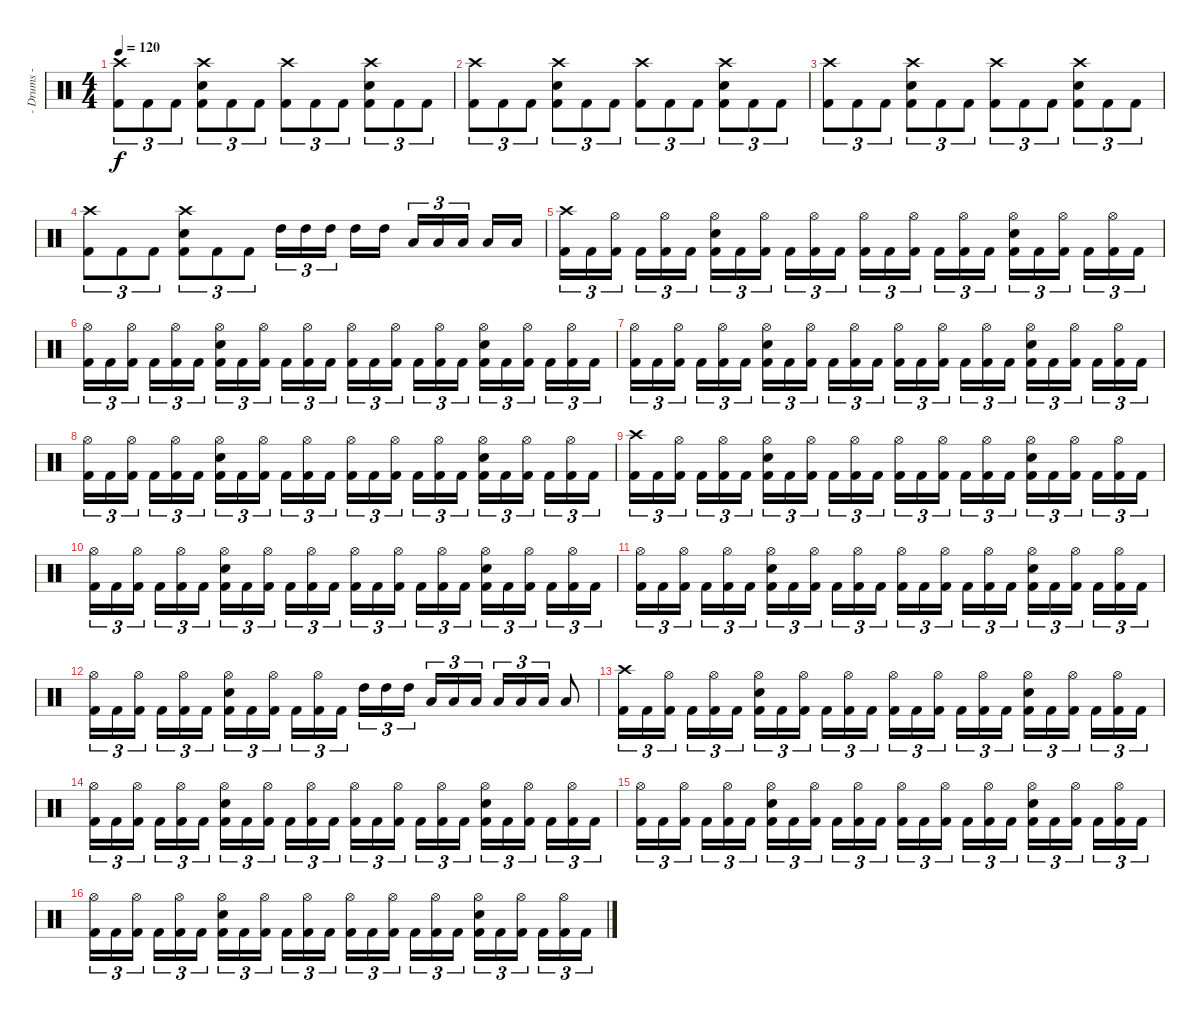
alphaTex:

\track ("- Drums -" "- Drums -") {instrument percussion}
\staff {score}
\articulation defaults
\ts (4 4)
\tempo 120
\clef neutral
\ks c
("Crash high (hit)" "Kick (hit) 2").8{tu (3 2) dy f} "Kick (hit) 2".8{tu (3 2)} "Kick (hit) 2".8{tu (3 2)} ("Crash high (hit)" "Electric Snare (hit)" "Kick (hit) 2").8{tu (3 2)} "Kick (hit) 2".8{tu (3 2)} "Kick (hit) 2".8{tu (3 2)} ("Crash high (hit)" "Kick (hit) 2").8{tu (3 2)} "Kick (hit) 2".8{tu (3 2)} "Kick (hit) 2".8{tu (3 2)} ("Crash high (hit)" "Electric Snare (hit)" "Kick (hit) 2").8{tu (3 2)} "Kick (hit) 2".8{tu (3 2)} "Kick (hit) 2".8{tu (3 2)} |
("Crash high (hit)" "Kick (hit) 2").8{tu (3 2)} "Kick (hit) 2".8{tu (3 2)} "Kick (hit) 2".8{tu (3 2)} ("Crash high (hit)" "Electric Snare (hit)" "Kick (hit) 2").8{tu (3 2)} "Kick (hit) 2".8{tu (3 2)} "Kick (hit) 2".8{tu (3 2)} ("Crash high (hit)" "Kick (hit) 2").8{tu (3 2)} "Kick (hit) 2".8{tu (3 2)} "Kick (hit) 2".8{tu (3 2)} ("Crash high (hit)" "Electric Snare (hit)" "Kick (hit) 2").8{tu (3 2)} "Kick (hit) 2".8{tu (3 2)} "Kick (hit) 2".8{tu (3 2)} |
("Crash high (hit)" "Kick (hit) 2").8{tu (3 2)} "Kick (hit) 2".8{tu (3 2)} "Kick (hit) 2".8{tu (3 2)} ("Crash high (hit)" "Electric Snare (hit)" "Kick (hit) 2").8{tu (3 2)} "Kick (hit) 2".8{tu (3 2)} "Kick (hit) 2".8{tu (3 2)} ("Crash high (hit)" "Kick (hit) 2").8{tu (3 2)} "Kick (hit) 2".8{tu (3 2)} "Kick (hit) 2".8{tu (3 2)} ("Crash high (hit)" "Electric Snare (hit)" "Kick (hit) 2").8{tu (3 2)} "Kick (hit) 2".8{tu (3 2)} "Kick (hit) 2".8{tu (3 2)} |
("Crash high (hit)" "Kick (hit) 2").8{tu (3 2)} "Kick (hit) 2".8{tu (3 2)} "Kick (hit) 2".8{tu (3 2)} ("Crash high (hit)" "Electric Snare (hit)" "Kick (hit) 2").8{tu (3 2)} "Kick (hit) 2".8{tu (3 2)} "Kick (hit) 2".8{tu (3 2)} "High Tom (hit)".16{tu (3 2)} "High Tom (hit)".16{tu (3 2)} "High Tom (hit)".16{tu (3 2)} "High Tom (hit)".16 "High Tom (hit)".16 "Low Tom (hit)".16{tu (3 2)} "Low Tom (hit)".16{tu (3 2)} "Low Tom (hit)".16{tu (3 2)} "Low Tom (hit)".16 "Low Tom (hit)".16 |
("Crash high (hit)" "Kick (hit) 2").16{tu (3 2)} "Kick (hit) 2".16{tu (3 2)} ("Hi-Hat (open)" "Kick (hit) 2").16{tu (3 2)} "Kick (hit) 2".16{tu (3 2)} ("Hi-Hat (open)" "Kick (hit) 2").16{tu (3 2)} "Kick (hit) 2".16{tu (3 2)} ("Hi-Hat (open)" "Electric Snare (hit)" "Kick (hit) 2").16{tu (3 2)} "Kick (hit) 2".16{tu (3 2)} ("Hi-Hat (open)" "Kick (hit) 2").16{tu (3 2)} "Kick (hit) 2".16{tu (3 2)} ("Hi-Hat (open)" "Kick (hit) 2").16{tu (3 2)} "Kick (hit) 2".16{tu (3 2)} ("Hi-Hat (open)" "Kick (hit) 2").16{tu (3 2)} "Kick (hit) 2".16{tu (3 2)} ("Hi-Hat (open)" "Kick (hit) 2").16{tu (3 2)} "Kick (hit) 2".16{tu (3 2)} ("Hi-Hat (open)" "Kick (hit) 2").16{tu (3 2)} "Kick (hit) 2".16{tu (3 2)} ("Hi-Hat (open)" "Electric Snare (hit)" "Kick (hit) 2").16{tu (3 2)} "Kick (hit) 2".16{tu (3 2)} ("Hi-Hat (open)" "Kick (hit) 2").16{tu (3 2)} "Kick (hit) 2".16{tu (3 2)} ("Hi-Hat (open)" "Kick (hit) 2").16{tu (3 2)} "Kick (hit) 2".16{tu (3 2)} |
("Hi-Hat (open)" "Kick (hit) 2").16{tu (3 2)} "Kick (hit) 2".16{tu (3 2)} ("Hi-Hat (open)" "Kick (hit) 2").16{tu (3 2)} "Kick (hit) 2".16{tu (3 2)} ("Hi-Hat (open)" "Kick (hit) 2").16{tu (3 2)} "Kick (hit) 2".16{tu (3 2)} ("Hi-Hat (open)" "Electric Snare (hit)" "Kick (hit) 2").16{tu (3 2)} "Kick (hit) 2".16{tu (3 2)} ("Hi-Hat (open)" "Kick (hit) 2").16{tu (3 2)} "Kick (hit) 2".16{tu (3 2)} ("Hi-Hat (open)" "Kick (hit) 2").16{tu (3 2)} "Kick (hit) 2".16{tu (3 2)} ("Hi-Hat (open)" "Kick (hit) 2").16{tu (3 2)} "Kick (hit) 2".16{tu (3 2)} ("Hi-Hat (open)" "Kick (hit) 2").16{tu (3 2)} "Kick (hit) 2".16{tu (3 2)} ("Hi-Hat (open)" "Kick (hit) 2").16{tu (3 2)} "Kick (hit) 2".16{tu (3 2)} ("Hi-Hat (open)" "Electric Snare (hit)" "Kick (hit) 2").16{tu (3 2)} "Kick (hit) 2".16{tu (3 2)} ("Hi-Hat (open)" "Kick (hit) 2").16{tu (3 2)} "Kick (hit) 2".16{tu (3 2)} ("Hi-Hat (open)" "Kick (hit) 2").16{tu (3 2)} "Kick (hit) 2".16{tu (3 2)} |
("Hi-Hat (open)" "Kick (hit) 2").16{tu (3 2)} "Kick (hit) 2".16{tu (3 2)} ("Hi-Hat (open)" "Kick (hit) 2").16{tu (3 2)} "Kick (hit) 2".16{tu (3 2)} ("Hi-Hat (open)" "Kick (hit) 2").16{tu (3 2)} "Kick (hit) 2".16{tu (3 2)} ("Hi-Hat (open)" "Electric Snare (hit)" "Kick (hit) 2").16{tu (3 2)} "Kick (hit) 2".16{tu (3 2)} ("Hi-Hat (open)" "Kick (hit) 2").16{tu (3 2)} "Kick (hit) 2".16{tu (3 2)} ("Hi-Hat (open)" "Kick (hit) 2").16{tu (3 2)} "Kick (hit) 2".16{tu (3 2)} ("Hi-Hat (open)" "Kick (hit) 2").16{tu (3 2)} "Kick (hit) 2".16{tu (3 2)} ("Hi-Hat (open)" "Kick (hit) 2").16{tu (3 2)} "Kick (hit) 2".16{tu (3 2)} ("Hi-Hat (open)" "Kick (hit) 2").16{tu (3 2)} "Kick (hit) 2".16{tu (3 2)} ("Hi-Hat (open)" "Electric Snare (hit)" "Kick (hit) 2").16{tu (3 2)} "Kick (hit) 2".16{tu (3 2)} ("Hi-Hat (open)" "Kick (hit) 2").16{tu (3 2)} "Kick (hit) 2".16{tu (3 2)} ("Hi-Hat (open)" "Kick (hit) 2").16{tu (3 2)} "Kick (hit) 2".16{tu (3 2)} |
("Hi-Hat (open)" "Kick (hit) 2").16{tu (3 2)} "Kick (hit) 2".16{tu (3 2)} ("Hi-Hat (open)" "Kick (hit) 2").16{tu (3 2)} "Kick (hit) 2".16{tu (3 2)} ("Hi-Hat (open)" "Kick (hit) 2").16{tu (3 2)} "Kick (hit) 2".16{tu (3 2)} ("Hi-Hat (open)" "Electric Snare (hit)" "Kick (hit) 2").16{tu (3 2)} "Kick (hit) 2".16{tu (3 2)} ("Hi-Hat (open)" "Kick (hit) 2").16{tu (3 2)} "Kick (hit) 2".16{tu (3 2)} ("Hi-Hat (open)" "Kick (hit) 2").16{tu (3 2)} "Kick (hit) 2".16{tu (3 2)} ("Hi-Hat (open)" "Kick (hit) 2").16{tu (3 2)} "Kick (hit) 2".16{tu (3 2)} ("Hi-Hat (open)" "Kick (hit) 2").16{tu (3 2)} "Kick (hit) 2".16{tu (3 2)} ("Hi-Hat (open)" "Kick (hit) 2").16{tu (3 2)} "Kick (hit) 2".16{tu (3 2)} ("Hi-Hat (open)" "Electric Snare (hit)" "Kick (hit) 2").16{tu (3 2)} "Kick (hit) 2".16{tu (3 2)} ("Hi-Hat (open)" "Kick (hit) 2").16{tu (3 2)} "Kick (hit) 2".16{tu (3 2)} ("Hi-Hat (open)" "Kick (hit) 2").16{tu (3 2)} "Kick (hit) 2".16{tu (3 2)} |
("Crash high (hit)" "Kick (hit) 2").16{tu (3 2)} "Kick (hit) 2".16{tu (3 2)} ("Hi-Hat (open)" "Kick (hit) 2").16{tu (3 2)} "Kick (hit) 2".16{tu (3 2)} ("Hi-Hat (open)" "Kick (hit) 2").16{tu (3 2)} "Kick (hit) 2".16{tu (3 2)} ("Hi-Hat (open)" "Electric Snare (hit)" "Kick (hit) 2").16{tu (3 2)} "Kick (hit) 2".16{tu (3 2)} ("Hi-Hat (open)" "Kick (hit) 2").16{tu (3 2)} "Kick (hit) 2".16{tu (3 2)} ("Hi-Hat (open)" "Kick (hit) 2").16{tu (3 2)} "Kick (hit) 2".16{tu (3 2)} ("Hi-Hat (open)" "Kick (hit) 2").16{tu (3 2)} "Kick (hit) 2".16{tu (3 2)} ("Hi-Hat (open)" "Kick (hit) 2").16{tu (3 2)} "Kick (hit) 2".16{tu (3 2)} ("Hi-Hat (open)" "Kick (hit) 2").16{tu (3 2)} "Kick (hit) 2".16{tu (3 2)} ("Hi-Hat (open)" "Electric Snare (hit)" "Kick (hit) 2").16{tu (3 2)} "Kick (hit) 2".16{tu (3 2)} ("Hi-Hat (open)" "Kick (hit) 2").16{tu (3 2)} "Kick (hit) 2".16{tu (3 2)} ("Hi-Hat (open)" "Kick (hit) 2").16{tu (3 2)} "Kick (hit) 2".16{tu (3 2)} |
("Hi-Hat (open)" "Kick (hit) 2").16{tu (3 2)} "Kick (hit) 2".16{tu (3 2)} ("Hi-Hat (open)" "Kick (hit) 2").16{tu (3 2)} "Kick (hit) 2".16{tu (3 2)} ("Hi-Hat (open)" "Kick (hit) 2").16{tu (3 2)} "Kick (hit) 2".16{tu (3 2)} ("Hi-Hat (open)" "Electric Snare (hit)" "Kick (hit) 2").16{tu (3 2)} "Kick (hit) 2".16{tu (3 2)} ("Hi-Hat (open)" "Kick (hit) 2").16{tu (3 2)} "Kick (hit) 2".16{tu (3 2)} ("Hi-Hat (open)" "Kick (hit) 2").16{tu (3 2)} "Kick (hit) 2".16{tu (3 2)} ("Hi-Hat (open)" "Kick (hit) 2").16{tu (3 2)} "Kick (hit) 2".16{tu (3 2)} ("Hi-Hat (open)" "Kick (hit) 2").16{tu (3 2)} "Kick (hit) 2".16{tu (3 2)} ("Hi-Hat (open)" "Kick (hit) 2").16{tu (3 2)} "Kick (hit) 2".16{tu (3 2)} ("Hi-Hat (open)" "Electric Snare (hit)" "Kick (hit) 2").16{tu (3 2)} "Kick (hit) 2".16{tu (3 2)} ("Hi-Hat (open)" "Kick (hit) 2").16{tu (3 2)} "Kick (hit) 2".16{tu (3 2)} ("Hi-Hat (open)" "Kick (hit) 2").16{tu (3 2)} "Kick (hit) 2".16{tu (3 2)} |
("Hi-Hat (open)" "Kick (hit) 2").16{tu (3 2)} "Kick (hit) 2".16{tu (3 2)} ("Hi-Hat (open)" "Kick (hit) 2").16{tu (3 2)} "Kick (hit) 2".16{tu (3 2)} ("Hi-Hat (open)" "Kick (hit) 2").16{tu (3 2)} "Kick (hit) 2".16{tu (3 2)} ("Hi-Hat (open)" "Electric Snare (hit)" "Kick (hit) 2").16{tu (3 2)} "Kick (hit) 2".16{tu (3 2)} ("Hi-Hat (open)" "Kick (hit) 2").16{tu (3 2)} "Kick (hit) 2".16{tu (3 2)} ("Hi-Hat (open)" "Kick (hit) 2").16{tu (3 2)} "Kick (hit) 2".16{tu (3 2)} ("Hi-Hat (open)" "Kick (hit) 2").16{tu (3 2)} "Kick (hit) 2".16{tu (3 2)} ("Hi-Hat (open)" "Kick (hit) 2").16{tu (3 2)} "Kick (hit) 2".16{tu (3 2)} ("Hi-Hat (open)" "Kick (hit) 2").16{tu (3 2)} "Kick (hit) 2".16{tu (3 2)} ("Hi-Hat (open)" "Electric Snare (hit)" "Kick (hit) 2").16{tu (3 2)} "Kick (hit) 2".16{tu (3 2)} ("Hi-Hat (open)" "Kick (hit) 2").16{tu (3 2)} "Kick (hit) 2".16{tu (3 2)} ("Hi-Hat (open)" "Kick (hit) 2").16{tu (3 2)} "Kick (hit) 2".16{tu (3 2)} |
("Hi-Hat (open)" "Kick (hit) 2").16{tu (3 2)} "Kick (hit) 2".16{tu (3 2)} ("Hi-Hat (open)" "Kick (hit) 2").16{tu (3 2)} "Kick (hit) 2".16{tu (3 2)} ("Hi-Hat (open)" "Kick (hit) 2").16{tu (3 2)} "Kick (hit) 2".16{tu (3 2)} ("Hi-Hat (open)" "Electric Snare (hit)" "Kick (hit) 2").16{tu (3 2)} "Kick (hit) 2".16{tu (3 2)} ("Hi-Hat (open)" "Kick (hit) 2").16{tu (3 2)} "Kick (hit) 2".16{tu (3 2)} ("Hi-Hat (open)" "Kick (hit) 2").16{tu (3 2)} "Kick (hit) 2".16{tu (3 2)} "High Tom (hit)".16{tu (3 2)} "High Tom (hit)".16{tu (3 2)} "High Tom (hit)".16{tu (3 2)} "Low Tom (hit)".16{tu (3 2)} "Low Tom (hit)".16{tu (3 2)} "Low Tom (hit)".16{tu (3 2)} "Low Floor Tom (hit)".16{tu (3 2)} "Low Floor Tom (hit)".16{tu (3 2)} "Low Floor Tom (hit)".16{tu (3 2)} "Low Floor Tom (hit)".8 |
("Crash high (hit)" "Kick (hit) 2").16{tu (3 2)} "Kick (hit) 2".16{tu (3 2)} ("Hi-Hat (open)" "Kick (hit) 2").16{tu (3 2)} "Kick (hit) 2".16{tu (3 2)} ("Hi-Hat (open)" "Kick (hit) 2").16{tu (3 2)} "Kick (hit) 2".16{tu (3 2)} ("Hi-Hat (open)" "Electric Snare (hit)" "Kick (hit) 2").16{tu (3 2)} "Kick (hit) 2".16{tu (3 2)} ("Hi-Hat (open)" "Kick (hit) 2").16{tu (3 2)} "Kick (hit) 2".16{tu (3 2)} ("Hi-Hat (open)" "Kick (hit) 2").16{tu (3 2)} "Kick (hit) 2".16{tu (3 2)} ("Hi-Hat (open)" "Kick (hit) 2").16{tu (3 2)} "Kick (hit) 2".16{tu (3 2)} ("Hi-Hat (open)" "Kick (hit) 2").16{tu (3 2)} "Kick (hit) 2".16{tu (3 2)} ("Hi-Hat (open)" "Kick (hit) 2").16{tu (3 2)} "Kick (hit) 2".16{tu (3 2)} ("Hi-Hat (open)" "Electric Snare (hit)" "Kick (hit) 2").16{tu (3 2)} "Kick (hit) 2".16{tu (3 2)} ("Hi-Hat (open)" "Kick (hit) 2").16{tu (3 2)} "Kick (hit) 2".16{tu (3 2)} ("Hi-Hat (open)" "Kick (hit) 2").16{tu (3 2)} "Kick (hit) 2".16{tu (3 2)} |
("Hi-Hat (open)" "Kick (hit) 2").16{tu (3 2)} "Kick (hit) 2".16{tu (3 2)} ("Hi-Hat (open)" "Kick (hit) 2").16{tu (3 2)} "Kick (hit) 2".16{tu (3 2)} ("Hi-Hat (open)" "Kick (hit) 2").16{tu (3 2)} "Kick (hit) 2".16{tu (3 2)} ("Hi-Hat (open)" "Electric Snare (hit)" "Kick (hit) 2").16{tu (3 2)} "Kick (hit) 2".16{tu (3 2)} ("Hi-Hat (open)" "Kick (hit) 2").16{tu (3 2)} "Kick (hit) 2".16{tu (3 2)} ("Hi-Hat (open)" "Kick (hit) 2").16{tu (3 2)} "Kick (hit) 2".16{tu (3 2)} ("Hi-Hat (open)" "Kick (hit) 2").16{tu (3 2)} "Kick (hit) 2".16{tu (3 2)} ("Hi-Hat (open)" "Kick (hit) 2").16{tu (3 2)} "Kick (hit) 2".16{tu (3 2)} ("Hi-Hat (open)" "Kick (hit) 2").16{tu (3 2)} "Kick (hit) 2".16{tu (3 2)} ("Hi-Hat (open)" "Electric Snare (hit)" "Kick (hit) 2").16{tu (3 2)} "Kick (hit) 2".16{tu (3 2)} ("Hi-Hat (open)" "Kick (hit) 2").16{tu (3 2)} "Kick (hit) 2".16{tu (3 2)} ("Hi-Hat (open)" "Kick (hit) 2").16{tu (3 2)} "Kick (hit) 2".16{tu (3 2)} |
("Hi-Hat (open)" "Kick (hit) 2").16{tu (3 2)} "Kick (hit) 2".16{tu (3 2)} ("Hi-Hat (open)" "Kick (hit) 2").16{tu (3 2)} "Kick (hit) 2".16{tu (3 2)} ("Hi-Hat (open)" "Kick (hit) 2").16{tu (3 2)} "Kick (hit) 2".16{tu (3 2)} ("Hi-Hat (open)" "Electric Snare (hit)" "Kick (hit) 2").16{tu (3 2)} "Kick (hit) 2".16{tu (3 2)} ("Hi-Hat (open)" "Kick (hit) 2").16{tu (3 2)} "Kick (hit) 2".16{tu (3 2)} ("Hi-Hat (open)" "Kick (hit) 2").16{tu (3 2)} "Kick (hit) 2".16{tu (3 2)} ("Hi-Hat (open)" "Kick (hit) 2").16{tu (3 2)} "Kick (hit) 2".16{tu (3 2)} ("Hi-Hat (open)" "Kick (hit) 2").16{tu (3 2)} "Kick (hit) 2".16{tu (3 2)} ("Hi-Hat (open)" "Kick (hit) 2").16{tu (3 2)} "Kick (hit) 2".16{tu (3 2)} ("Hi-Hat (open)" "Electric Snare (hit)" "Kick (hit) 2").16{tu (3 2)} "Kick (hit) 2".16{tu (3 2)} ("Hi-Hat (open)" "Kick (hit) 2").16{tu (3 2)} "Kick (hit) 2".16{tu (3 2)} ("Hi-Hat (open)" "Kick (hit) 2").16{tu (3 2)} "Kick (hit) 2".16{tu (3 2)} |
("Hi-Hat (open)" "Kick (hit) 2").16{tu (3 2)} "Kick (hit) 2".16{tu (3 2)} ("Hi-Hat (open)" "Kick (hit) 2").16{tu (3 2)} "Kick (hit) 2".16{tu (3 2)} ("Hi-Hat (open)" "Kick (hit) 2").16{tu (3 2)} "Kick (hit) 2".16{tu (3 2)} ("Hi-Hat (open)" "Electric Snare (hit)" "Kick (hit) 2").16{tu (3 2)} "Kick (hit) 2".16{tu (3 2)} ("Hi-Hat (open)" "Kick (hit) 2").16{tu (3 2)} "Kick (hit) 2".16{tu (3 2)} ("Hi-Hat (open)" "Kick (hit) 2").16{tu (3 2)} "Kick (hit) 2".16{tu (3 2)} ("Hi-Hat (open)" "Kick (hit) 2").16{tu (3 2)} "Kick (hit) 2".16{tu (3 2)} ("Hi-Hat (open)" "Kick (hit) 2").16{tu (3 2)} "Kick (hit) 2".16{tu (3 2)} ("Hi-Hat (open)" "Kick (hit) 2").16{tu (3 2)} "Kick (hit) 2".16{tu (3 2)} ("Hi-Hat (open)" "Electric Snare (hit)" "Kick (hit) 2").16{tu (3 2)} "Kick (hit) 2".16{tu (3 2)} ("Hi-Hat (open)" "Kick (hit) 2").16{tu (3 2)} "Kick (hit) 2".16{tu (3 2)} ("Hi-Hat (open)" "Kick (hit) 2").16{tu (3 2)} "Kick (hit) 2".16{tu (3 2)}
